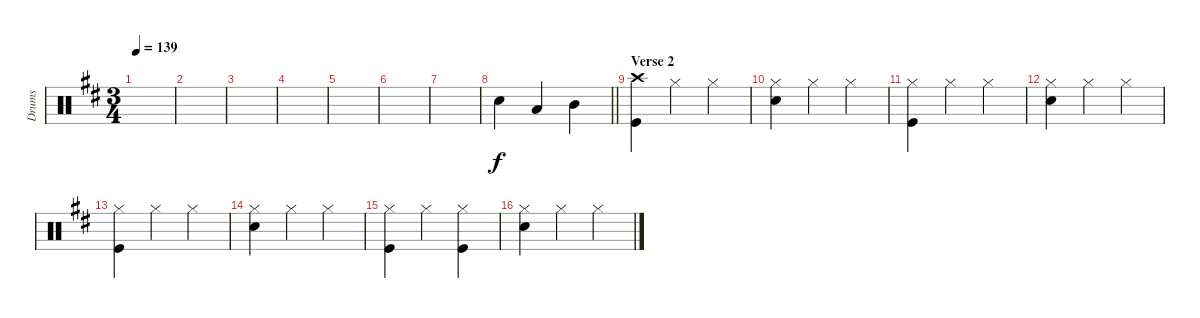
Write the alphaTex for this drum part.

\track ("Drums" "Drums") {instrument percussion}
\staff {score}
\articulation defaults
\ts (3 4)
\tempo 139
\clef neutral
\ks d
|
|
|
|
|
|
|
\barLineRight lightlight "Snare (hit) 2".4 "Low Tom (hit)".4 "Mid Tom (hit)".4
|
\section ("" "Verse 2")
("Crash high (hit)" "Kick (hit)").4 "Hi-Hat (closed)".4 "Hi-Hat (closed)".4 |
("Hi-Hat (closed)" "Snare (hit) 2").4 "Hi-Hat (closed)".4 "Hi-Hat (closed)".4 |
("Hi-Hat (closed)" "Kick (hit)").4 "Hi-Hat (closed)".4 "Hi-Hat (closed)".4 |
("Hi-Hat (closed)" "Snare (hit) 2").4 "Hi-Hat (closed)".4 "Hi-Hat (closed)".4 |
("Hi-Hat (closed)" "Kick (hit)").4 "Hi-Hat (closed)".4 "Hi-Hat (closed)".4 |
("Hi-Hat (closed)" "Snare (hit) 2").4 "Hi-Hat (closed)".4 "Hi-Hat (closed)".4 |
("Hi-Hat (closed)" "Kick (hit)").4 "Hi-Hat (closed)".4 ("Hi-Hat (closed)" "Kick (hit)").4 |
("Hi-Hat (closed)" "Snare (hit) 2").4 "Hi-Hat (closed)".4 "Hi-Hat (closed)".4
